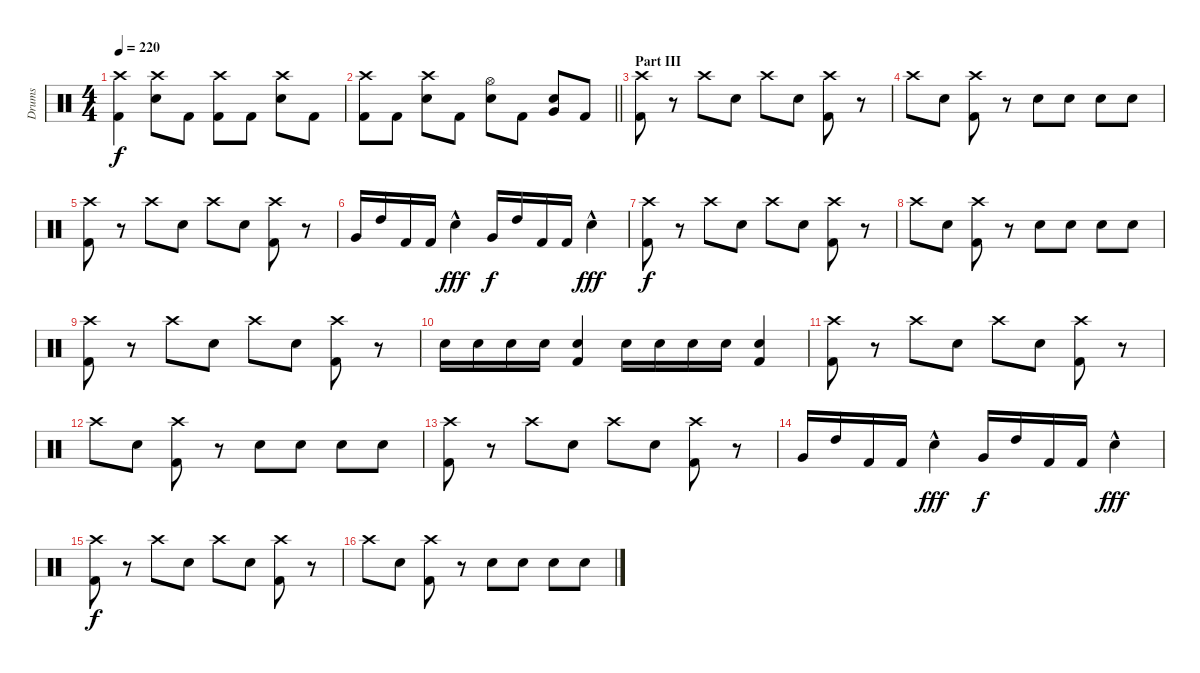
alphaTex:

\track ("Drums" "Drums") {instrument percussion}
\staff {score}
\articulation defaults
\ts (4 4)
\tempo 220
\clef neutral
\ks c
("Crash high (hit)" "Kick (hit) 2").4{dy f} ("Crash high (hit)" "Electric Snare (hit)").8 "Kick (hit) 2".8 ("Crash high (hit)" "Kick (hit) 2").8 "Kick (hit) 2".8 ("Crash high (hit)" "Electric Snare (hit)").8 "Kick (hit) 2".8 |
\barLineRight lightlight
("Crash high (hit)" "Kick (hit) 2").8 "Kick (hit) 2".8 ("Crash high (hit)" "Electric Snare (hit)").8 "Kick (hit) 2".8 ("Hi-Hat (open)" "Electric Snare (hit)").8 "Kick (hit) 2".8 ("Very Low Tom (hit)" "Electric Snare (hit)").8 "Kick (hit) 2".8 |
\section ("" "Part III")
("Crash high (hit)" "Kick (hit) 2").8 r.8 "Crash high (hit)".8 "Electric Snare (hit)".8 "Crash high (hit)".8 "Electric Snare (hit)".8 ("Crash high (hit)" "Kick (hit) 2").8 r.8 |
"Crash high (hit)".8 "Electric Snare (hit)".8 ("Crash high (hit)" "Kick (hit) 2").8 r.8 "Electric Snare (hit)".8 "Electric Snare (hit)".8 "Electric Snare (hit)".8 "Electric Snare (hit)".8 |
("Crash high (hit)" "Kick (hit) 2").8 r.8 "Crash high (hit)".8 "Electric Snare (hit)".8 "Crash high (hit)".8 "Electric Snare (hit)".8 ("Crash high (hit)" "Kick (hit) 2").8 r.8 |
"Very Low Tom (hit)".16 "High Tom (hit)".16 "Kick (hit) 2".16 "Kick (hit) 2".16 "Electric Snare (hit)"{hac}.4{dy fff} "Very Low Tom (hit)".16{dy f} "High Tom (hit)".16 "Kick (hit) 2".16 "Kick (hit) 2".16 "Electric Snare (hit)"{hac}.4{dy fff} |
("Crash high (hit)" "Kick (hit) 2").8{dy f} r.8 "Crash high (hit)".8 "Electric Snare (hit)".8 "Crash high (hit)".8 "Electric Snare (hit)".8 ("Crash high (hit)" "Kick (hit) 2").8 r.8 |
"Crash high (hit)".8 "Electric Snare (hit)".8 ("Crash high (hit)" "Kick (hit) 2").8 r.8 "Electric Snare (hit)".8 "Electric Snare (hit)".8 "Electric Snare (hit)".8 "Electric Snare (hit)".8 |
("Crash high (hit)" "Kick (hit) 2").8 r.8 "Crash high (hit)".8 "Electric Snare (hit)".8 "Crash high (hit)".8 "Electric Snare (hit)".8 ("Crash high (hit)" "Kick (hit) 2").8 r.8 |
"Electric Snare (hit)".16 "Electric Snare (hit)".16 "Electric Snare (hit)".16 "Electric Snare (hit)".16 ("Electric Snare (hit)" "Kick (hit) 2").4 "Electric Snare (hit)".16 "Electric Snare (hit)".16 "Electric Snare (hit)".16 "Electric Snare (hit)".16 ("Electric Snare (hit)" "Kick (hit) 2").4 |
("Crash high (hit)" "Kick (hit) 2").8 r.8 "Crash high (hit)".8 "Electric Snare (hit)".8 "Crash high (hit)".8 "Electric Snare (hit)".8 ("Crash high (hit)" "Kick (hit) 2").8 r.8 |
"Crash high (hit)".8 "Electric Snare (hit)".8 ("Crash high (hit)" "Kick (hit) 2").8 r.8 "Electric Snare (hit)".8 "Electric Snare (hit)".8 "Electric Snare (hit)".8 "Electric Snare (hit)".8 |
("Crash high (hit)" "Kick (hit) 2").8 r.8 "Crash high (hit)".8 "Electric Snare (hit)".8 "Crash high (hit)".8 "Electric Snare (hit)".8 ("Crash high (hit)" "Kick (hit) 2").8 r.8 |
"Very Low Tom (hit)".16 "High Tom (hit)".16 "Kick (hit) 2".16 "Kick (hit) 2".16 "Electric Snare (hit)"{hac}.4{dy fff} "Very Low Tom (hit)".16{dy f} "High Tom (hit)".16 "Kick (hit) 2".16 "Kick (hit) 2".16 "Electric Snare (hit)"{hac}.4{dy fff} |
("Crash high (hit)" "Kick (hit) 2").8{dy f} r.8 "Crash high (hit)".8 "Electric Snare (hit)".8 "Crash high (hit)".8 "Electric Snare (hit)".8 ("Crash high (hit)" "Kick (hit) 2").8 r.8 |
"Crash high (hit)".8 "Electric Snare (hit)".8 ("Crash high (hit)" "Kick (hit) 2").8 r.8 "Electric Snare (hit)".8 "Electric Snare (hit)".8 "Electric Snare (hit)".8 "Electric Snare (hit)".8
